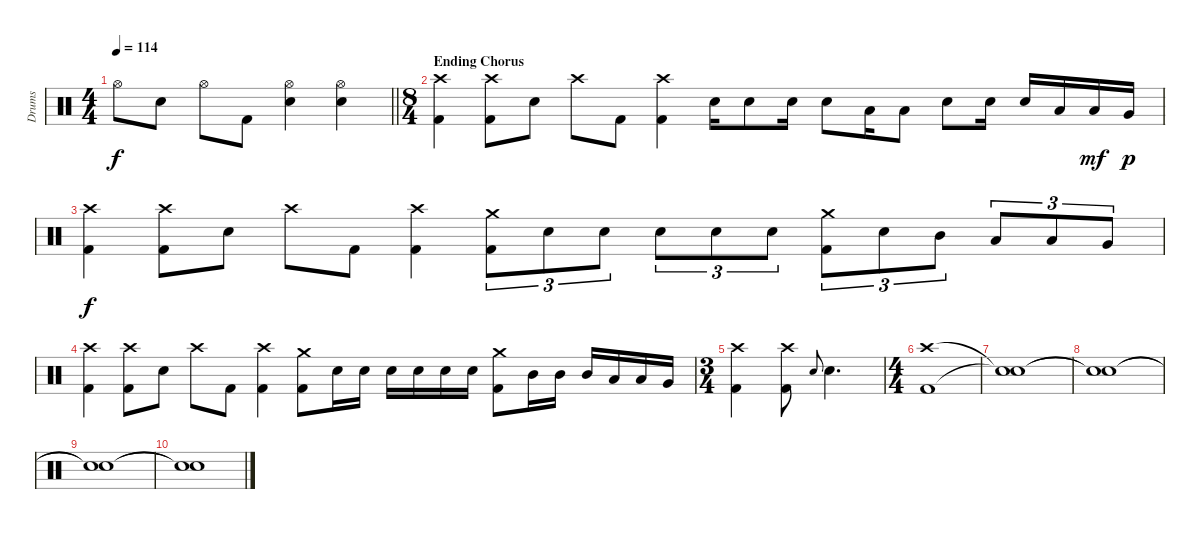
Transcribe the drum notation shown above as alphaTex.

\track ("Drums" "Drums") {instrument percussion}
\staff {score}
\articulation defaults
\ts (4 4)
\tempo 114
\clef neutral
\barLineRight lightlight
\ks c "Hi-Hat (open)".8{dy f} "Electric Snare (hit)".8 "Hi-Hat (open)".8 "Kick (hit) 2".8
("Hi-Hat (open)" "Electric Snare (hit)").4 ("Hi-Hat (open)" "Electric Snare (hit)").4 |
\ts (8 4)
\section ("" "Ending Chorus")
("Crash high (hit)" "Kick (hit) 2").4 ("Crash high (hit)" "Kick (hit) 2").8 "Electric Snare (hit)".8 "Crash high (hit)".8 "Kick (hit) 2".8 ("Crash high (hit)" "Kick (hit) 2").4 "Electric Snare (hit)".16 "Electric Snare (hit)".8 "Electric Snare (hit)".16 "Electric Snare (hit)".8 "Low Tom (hit)".16 "Low Tom (hit)".8 "Electric Snare (hit)".8 "Electric Snare (hit)".16 "Electric Snare (hit)".16 "Low Tom (hit)".16 "Low Tom (hit)".16{dy mf} "Very Low Tom (hit)".16{dy p} |
("Crash high (hit)" "Kick (hit) 2").4{dy f} ("Crash high (hit)" "Kick (hit) 2").8 "Electric Snare (hit)".8 "Crash high (hit)".8 "Kick (hit) 2".8 ("Crash high (hit)" "Kick (hit) 2").4 ("Crash medium (hit)" "Kick (hit) 2").8{tu (3 2)} "Electric Snare (hit)".8{tu (3 2)} "Electric Snare (hit)".8{tu (3 2)} "Electric Snare (hit)".8{tu (3 2)} "Electric Snare (hit)".8{tu (3 2)} "Electric Snare (hit)".8{tu (3 2)} ("Crash medium (hit)" "Kick (hit) 2").8{tu (3 2)} "Electric Snare (hit)".8{tu (3 2)} "Mid Tom (hit)".8{tu (3 2)} "Low Tom (hit)".8{tu (3 2)} "Low Tom (hit)".8{tu (3 2)} "Very Low Tom (hit)".8{tu (3 2)} |
("Crash high (hit)" "Kick (hit) 2").4 ("Crash high (hit)" "Kick (hit) 2").8 "Electric Snare (hit)".8 "Crash high (hit)".8 "Kick (hit) 2".8 ("Crash high (hit)" "Kick (hit) 2").4 ("Crash medium (hit)" "Kick (hit) 2").8 "Electric Snare (hit)".16 "Electric Snare (hit)".16 "Electric Snare (hit)".16 "Electric Snare (hit)".16 "Electric Snare (hit)".16 "Electric Snare (hit)".16 ("Crash medium (hit)" "Kick (hit) 2").8 "Mid Tom (hit)".16 "Mid Tom (hit)".16 "Mid Tom (hit)".16 "Low Tom (hit)".16 "Low Tom (hit)".16 "Very Low Tom (hit)".16 |
\ts (3 4)
("Crash high (hit)" "Kick (hit) 2").4 ("Crash high (hit)" "Kick (hit) 2").8 "Electric Snare (hit)".8{gr onbeat} "Electric Snare (hit)".4{d} |
\ts (4 4)
("Crash high (hit)" "Kick (hit) 2").1 |
("Snare (hit)"{t} "Snare (hit)"{t}).1 |
("Snare (hit)"{t} "Snare (hit)"{t}).1 |
("Snare (hit)"{t} "Snare (hit)"{t}).1 |
("Snare (hit)"{t} "Snare (hit)"{t}).1
